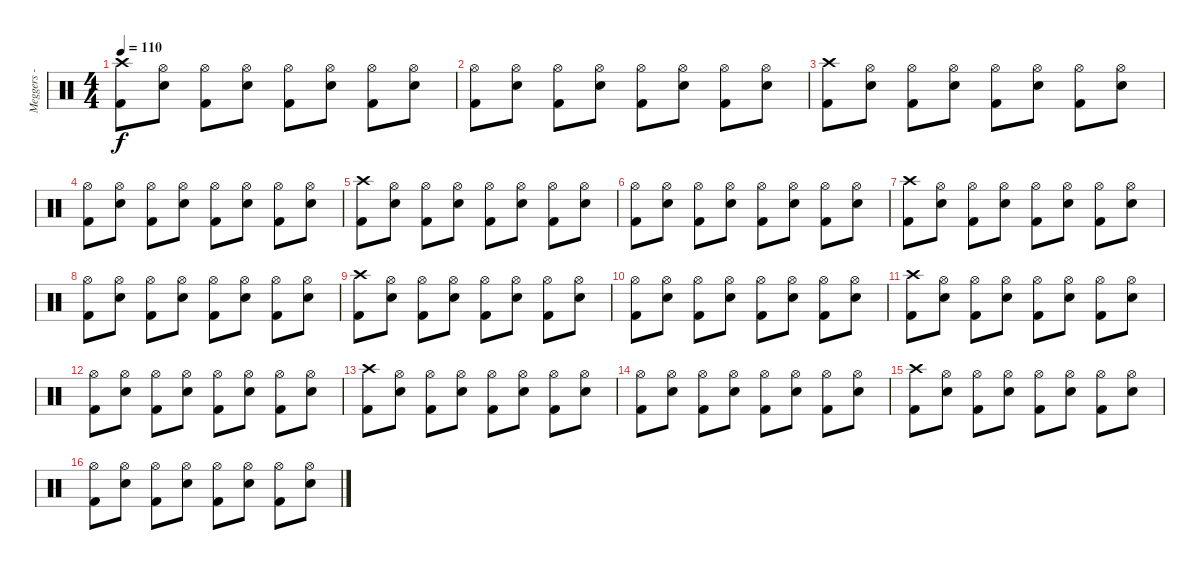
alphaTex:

\track ("Meggers - Drums" "Meggers - ") {instrument percussion}
\staff {score}
\articulation defaults
\ts (4 4)
\tempo 110
\clef neutral
\ks c
("Crash high (hit)" "Kick (hit) 2").8{dy f} ("Hi-Hat (open)" "Electric Snare (hit)").8 ("Hi-Hat (open)" "Kick (hit) 2").8 ("Hi-Hat (open)" "Electric Snare (hit)").8 ("Hi-Hat (open)" "Kick (hit) 2").8 ("Hi-Hat (open)" "Electric Snare (hit)").8 ("Hi-Hat (open)" "Kick (hit) 2").8 ("Hi-Hat (open)" "Electric Snare (hit)").8 |
("Hi-Hat (open)" "Kick (hit) 2").8 ("Hi-Hat (open)" "Electric Snare (hit)").8 ("Hi-Hat (open)" "Kick (hit) 2").8 ("Hi-Hat (open)" "Electric Snare (hit)").8 ("Hi-Hat (open)" "Kick (hit) 2").8 ("Hi-Hat (open)" "Electric Snare (hit)").8 ("Hi-Hat (open)" "Kick (hit) 2").8 ("Hi-Hat (open)" "Electric Snare (hit)").8 |
("Crash high (hit)" "Kick (hit) 2").8 ("Hi-Hat (open)" "Electric Snare (hit)").8 ("Hi-Hat (open)" "Kick (hit) 2").8 ("Hi-Hat (open)" "Electric Snare (hit)").8 ("Hi-Hat (open)" "Kick (hit) 2").8 ("Hi-Hat (open)" "Electric Snare (hit)").8 ("Hi-Hat (open)" "Kick (hit) 2").8 ("Hi-Hat (open)" "Electric Snare (hit)").8 |
("Hi-Hat (open)" "Kick (hit) 2").8 ("Hi-Hat (open)" "Electric Snare (hit)").8 ("Hi-Hat (open)" "Kick (hit) 2").8 ("Hi-Hat (open)" "Electric Snare (hit)").8 ("Hi-Hat (open)" "Kick (hit) 2").8 ("Hi-Hat (open)" "Electric Snare (hit)").8 ("Hi-Hat (open)" "Kick (hit) 2").8 ("Hi-Hat (open)" "Electric Snare (hit)").8 |
("Crash high (hit)" "Kick (hit) 2").8 ("Hi-Hat (open)" "Electric Snare (hit)").8 ("Hi-Hat (open)" "Kick (hit) 2").8 ("Hi-Hat (open)" "Electric Snare (hit)").8 ("Hi-Hat (open)" "Kick (hit) 2").8 ("Hi-Hat (open)" "Electric Snare (hit)").8 ("Hi-Hat (open)" "Kick (hit) 2").8 ("Hi-Hat (open)" "Electric Snare (hit)").8 |
("Hi-Hat (open)" "Kick (hit) 2").8 ("Hi-Hat (open)" "Electric Snare (hit)").8 ("Hi-Hat (open)" "Kick (hit) 2").8 ("Hi-Hat (open)" "Electric Snare (hit)").8 ("Hi-Hat (open)" "Kick (hit) 2").8 ("Hi-Hat (open)" "Electric Snare (hit)").8 ("Hi-Hat (open)" "Kick (hit) 2").8 ("Hi-Hat (open)" "Electric Snare (hit)").8 |
("Crash high (hit)" "Kick (hit) 2").8 ("Hi-Hat (open)" "Electric Snare (hit)").8 ("Hi-Hat (open)" "Kick (hit) 2").8 ("Hi-Hat (open)" "Electric Snare (hit)").8 ("Hi-Hat (open)" "Kick (hit) 2").8 ("Hi-Hat (open)" "Electric Snare (hit)").8 ("Hi-Hat (open)" "Kick (hit) 2").8 ("Hi-Hat (open)" "Electric Snare (hit)").8 |
("Hi-Hat (open)" "Kick (hit) 2").8 ("Hi-Hat (open)" "Electric Snare (hit)").8 ("Hi-Hat (open)" "Kick (hit) 2").8 ("Hi-Hat (open)" "Electric Snare (hit)").8 ("Hi-Hat (open)" "Kick (hit) 2").8 ("Hi-Hat (open)" "Electric Snare (hit)").8 ("Hi-Hat (open)" "Kick (hit) 2").8 ("Hi-Hat (open)" "Electric Snare (hit)").8 |
("Crash high (hit)" "Kick (hit) 2").8 ("Hi-Hat (open)" "Electric Snare (hit)").8 ("Hi-Hat (open)" "Kick (hit) 2").8 ("Hi-Hat (open)" "Electric Snare (hit)").8 ("Hi-Hat (open)" "Kick (hit) 2").8 ("Hi-Hat (open)" "Electric Snare (hit)").8 ("Hi-Hat (open)" "Kick (hit) 2").8 ("Hi-Hat (open)" "Electric Snare (hit)").8 |
("Hi-Hat (open)" "Kick (hit) 2").8 ("Hi-Hat (open)" "Electric Snare (hit)").8 ("Hi-Hat (open)" "Kick (hit) 2").8 ("Hi-Hat (open)" "Electric Snare (hit)").8 ("Hi-Hat (open)" "Kick (hit) 2").8 ("Hi-Hat (open)" "Electric Snare (hit)").8 ("Hi-Hat (open)" "Kick (hit) 2").8 ("Hi-Hat (open)" "Electric Snare (hit)").8 |
("Crash high (hit)" "Kick (hit) 2").8 ("Hi-Hat (open)" "Electric Snare (hit)").8 ("Hi-Hat (open)" "Kick (hit) 2").8 ("Hi-Hat (open)" "Electric Snare (hit)").8 ("Hi-Hat (open)" "Kick (hit) 2").8 ("Hi-Hat (open)" "Electric Snare (hit)").8 ("Hi-Hat (open)" "Kick (hit) 2").8 ("Hi-Hat (open)" "Electric Snare (hit)").8 |
("Hi-Hat (open)" "Kick (hit) 2").8 ("Hi-Hat (open)" "Electric Snare (hit)").8 ("Hi-Hat (open)" "Kick (hit) 2").8 ("Hi-Hat (open)" "Electric Snare (hit)").8 ("Hi-Hat (open)" "Kick (hit) 2").8 ("Hi-Hat (open)" "Electric Snare (hit)").8 ("Hi-Hat (open)" "Kick (hit) 2").8 ("Hi-Hat (open)" "Electric Snare (hit)").8 |
("Crash high (hit)" "Kick (hit) 2").8 ("Hi-Hat (open)" "Electric Snare (hit)").8 ("Hi-Hat (open)" "Kick (hit) 2").8 ("Hi-Hat (open)" "Electric Snare (hit)").8 ("Hi-Hat (open)" "Kick (hit) 2").8 ("Hi-Hat (open)" "Electric Snare (hit)").8 ("Hi-Hat (open)" "Kick (hit) 2").8 ("Hi-Hat (open)" "Electric Snare (hit)").8 |
("Hi-Hat (open)" "Kick (hit) 2").8 ("Hi-Hat (open)" "Electric Snare (hit)").8 ("Hi-Hat (open)" "Kick (hit) 2").8 ("Hi-Hat (open)" "Electric Snare (hit)").8 ("Hi-Hat (open)" "Kick (hit) 2").8 ("Hi-Hat (open)" "Electric Snare (hit)").8 ("Hi-Hat (open)" "Kick (hit) 2").8 ("Hi-Hat (open)" "Electric Snare (hit)").8 |
("Crash high (hit)" "Kick (hit) 2").8 ("Hi-Hat (open)" "Electric Snare (hit)").8 ("Hi-Hat (open)" "Kick (hit) 2").8 ("Hi-Hat (open)" "Electric Snare (hit)").8 ("Hi-Hat (open)" "Kick (hit) 2").8 ("Hi-Hat (open)" "Electric Snare (hit)").8 ("Hi-Hat (open)" "Kick (hit) 2").8 ("Hi-Hat (open)" "Electric Snare (hit)").8 |
("Hi-Hat (open)" "Kick (hit) 2").8 ("Hi-Hat (open)" "Electric Snare (hit)").8 ("Hi-Hat (open)" "Kick (hit) 2").8 ("Hi-Hat (open)" "Electric Snare (hit)").8 ("Hi-Hat (open)" "Kick (hit) 2").8 ("Hi-Hat (open)" "Electric Snare (hit)").8 ("Hi-Hat (open)" "Kick (hit) 2").8 ("Hi-Hat (open)" "Electric Snare (hit)").8
